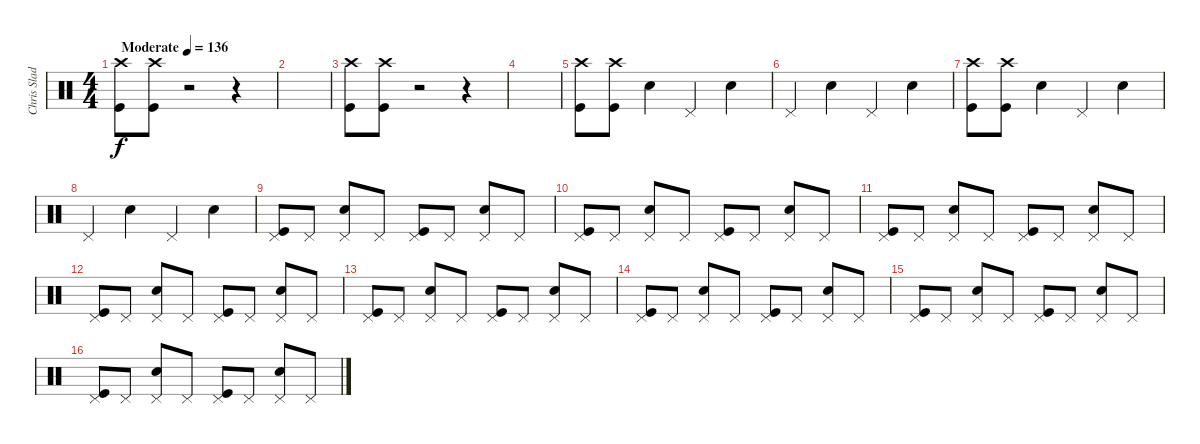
\track ("Chris Slade" "Chris Slad") {instrument percussion}
\staff {score}
\articulation defaults
\ts (4 4)
\tempo (136 "Moderate")
\clef neutral
\ks c
("Crash high (hit)" "Kick (hit)").8{dy f} ("Crash high (hit)" "Kick (hit)").8 r.2 r.4 |
|
("Crash high (hit)" "Kick (hit)").8 ("Crash high (hit)" "Kick (hit)").8 r.2 r.4 |
|
("Crash high (hit)" "Kick (hit)").8 ("Crash high (hit)" "Kick (hit)").8 "Snare (hit) 2".4 "Pedal Hi-Hat (hit)".4 "Snare (hit) 2".4 |
"Pedal Hi-Hat (hit)".4 "Snare (hit) 2".4 "Pedal Hi-Hat (hit)".4 "Snare (hit) 2".4 |
("Crash high (hit)" "Kick (hit)").8 ("Crash high (hit)" "Kick (hit)").8 "Snare (hit) 2".4 "Pedal Hi-Hat (hit)".4 "Snare (hit) 2".4 |
"Pedal Hi-Hat (hit)".4 "Snare (hit) 2".4 "Pedal Hi-Hat (hit)".4 "Snare (hit) 2".4 |
("Pedal Hi-Hat (hit)" "Kick (hit)").8 "Pedal Hi-Hat (hit)".8 ("Pedal Hi-Hat (hit)" "Snare (hit) 2").8 "Pedal Hi-Hat (hit)".8 ("Pedal Hi-Hat (hit)" "Kick (hit)").8 "Pedal Hi-Hat (hit)".8 ("Pedal Hi-Hat (hit)" "Snare (hit) 2").8 "Pedal Hi-Hat (hit)".8 |
("Pedal Hi-Hat (hit)" "Kick (hit)").8 "Pedal Hi-Hat (hit)".8 ("Pedal Hi-Hat (hit)" "Snare (hit) 2").8 "Pedal Hi-Hat (hit)".8 ("Pedal Hi-Hat (hit)" "Kick (hit)").8 "Pedal Hi-Hat (hit)".8 ("Pedal Hi-Hat (hit)" "Snare (hit) 2").8 "Pedal Hi-Hat (hit)".8 |
("Pedal Hi-Hat (hit)" "Kick (hit)").8 "Pedal Hi-Hat (hit)".8 ("Pedal Hi-Hat (hit)" "Snare (hit) 2").8 "Pedal Hi-Hat (hit)".8 ("Pedal Hi-Hat (hit)" "Kick (hit)").8 "Pedal Hi-Hat (hit)".8 ("Pedal Hi-Hat (hit)" "Snare (hit) 2").8 "Pedal Hi-Hat (hit)".8 |
("Pedal Hi-Hat (hit)" "Kick (hit)").8 "Pedal Hi-Hat (hit)".8 ("Pedal Hi-Hat (hit)" "Snare (hit) 2").8 "Pedal Hi-Hat (hit)".8 ("Pedal Hi-Hat (hit)" "Kick (hit)").8 "Pedal Hi-Hat (hit)".8 ("Pedal Hi-Hat (hit)" "Snare (hit) 2").8 "Pedal Hi-Hat (hit)".8 |
("Pedal Hi-Hat (hit)" "Kick (hit)").8 "Pedal Hi-Hat (hit)".8 ("Pedal Hi-Hat (hit)" "Snare (hit) 2").8 "Pedal Hi-Hat (hit)".8 ("Pedal Hi-Hat (hit)" "Kick (hit)").8 "Pedal Hi-Hat (hit)".8 ("Pedal Hi-Hat (hit)" "Snare (hit) 2").8 "Pedal Hi-Hat (hit)".8 |
("Pedal Hi-Hat (hit)" "Kick (hit)").8 "Pedal Hi-Hat (hit)".8 ("Pedal Hi-Hat (hit)" "Snare (hit) 2").8 "Pedal Hi-Hat (hit)".8 ("Pedal Hi-Hat (hit)" "Kick (hit)").8 "Pedal Hi-Hat (hit)".8 ("Pedal Hi-Hat (hit)" "Snare (hit) 2").8 "Pedal Hi-Hat (hit)".8 |
("Pedal Hi-Hat (hit)" "Kick (hit)").8 "Pedal Hi-Hat (hit)".8 ("Pedal Hi-Hat (hit)" "Snare (hit) 2").8 "Pedal Hi-Hat (hit)".8 ("Pedal Hi-Hat (hit)" "Kick (hit)").8 "Pedal Hi-Hat (hit)".8 ("Pedal Hi-Hat (hit)" "Snare (hit) 2").8 "Pedal Hi-Hat (hit)".8 |
("Pedal Hi-Hat (hit)" "Kick (hit)").8 "Pedal Hi-Hat (hit)".8 ("Pedal Hi-Hat (hit)" "Snare (hit) 2").8 "Pedal Hi-Hat (hit)".8 ("Pedal Hi-Hat (hit)" "Kick (hit)").8 "Pedal Hi-Hat (hit)".8 ("Pedal Hi-Hat (hit)" "Snare (hit) 2").8 "Pedal Hi-Hat (hit)".8
